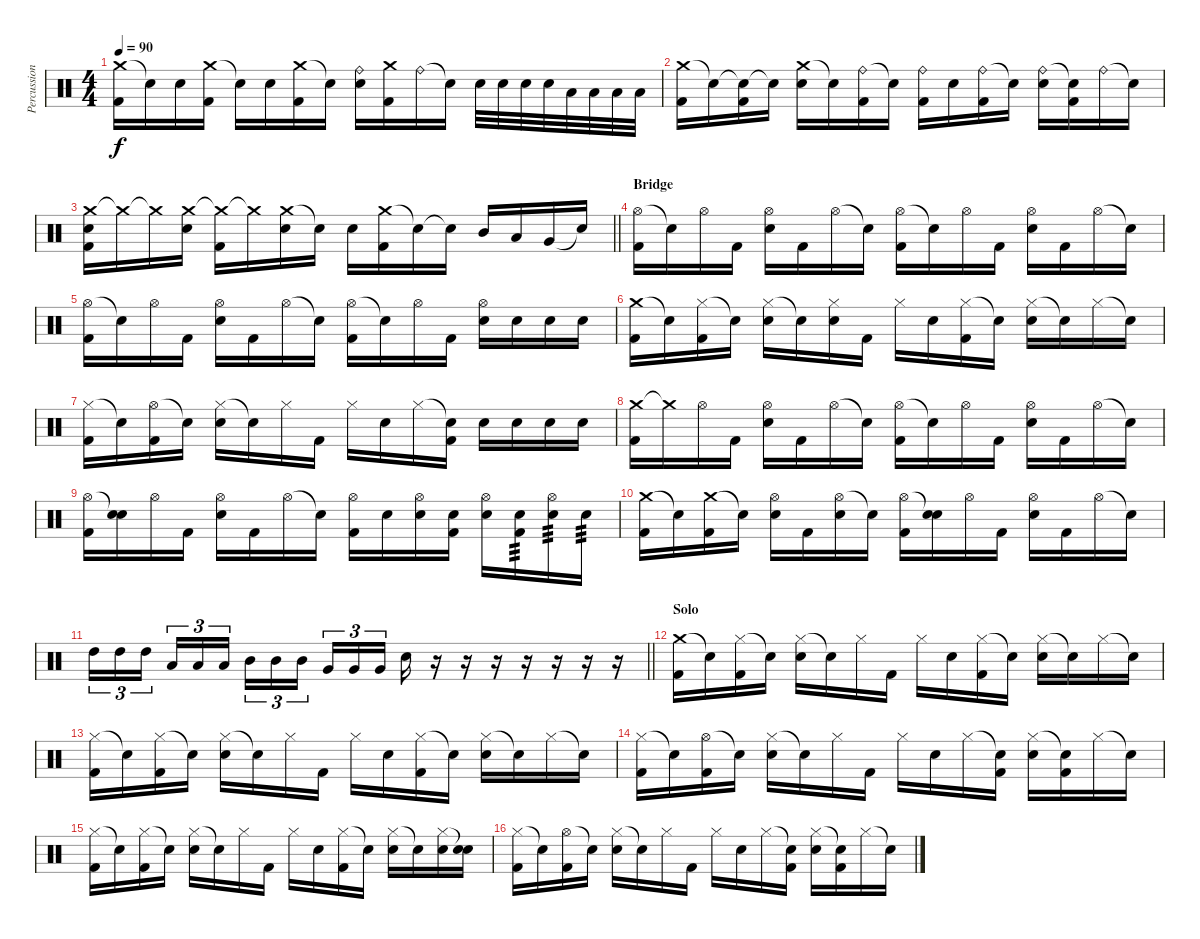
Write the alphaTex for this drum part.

\track ("Percussion" "Percussion") {instrument percussion}
\staff {score}
\articulation defaults
\ts (4 4)
\tempo 90
\clef neutral
\ks c
("Crash medium (hit)" "Kick (hit) 2").16{dy f} "Snare (hit)"{t}.16 "Snare (hit) 2".16 ("Crash medium (hit)" "Kick (hit) 2").16 "Snare (hit)"{t}.16 "Snare (hit) 2".16 ("Crash medium (hit)" "Kick (hit) 2").16 "Snare (hit)"{t}.16 ("Ride (bell)" "Snare (hit) 2").16 ("Crash medium (hit)" "Kick (hit) 2").16 "Ride (bell)".16 "Snare (hit)"{t}.16 "Snare (hit) 2".32 "Snare (hit) 2".32 "Snare (hit) 2".32 "Snare (hit) 2".32 "Low Tom (hit)".32 "Low Tom (hit)".32 "Low Tom (hit)".32 "Low Tom (hit)".32 |
("Crash medium (hit)" "Kick (hit) 2").16 "Snare (hit)"{t}.16 ("Snare (hit)"{t} "Kick (hit) 2").16 "Snare (hit)"{t}.16 ("Crash medium (hit)" "Snare (hit) 2").16 "Snare (hit)"{t}.16 ("Ride (bell)" "Kick (hit) 2").16 "Snare (hit)"{t}.16 ("Ride (bell)" "Kick (hit) 2").16 "Snare (hit) 2".16 ("Ride (bell)" "Kick (hit) 2").16 "Snare (hit)"{t}.16 ("Ride (bell)" "Snare (hit) 2").16 ("Snare (hit)"{t} "Kick (hit) 2").16 "Ride (bell)".16 "Snare (hit)"{t}.16 |
\barLineRight lightlight
("Crash medium (hit)" "Snare (hit) 2" "Kick (hit) 2").16 "Crash medium (hit)"{t}.16 "Crash medium (hit)"{t}.16 ("Crash medium (hit)" "Snare (hit) 2").16 ("Crash medium (hit)"{t} "Kick (hit) 2").16 "Crash medium (hit)"{t}.16 ("Crash medium (hit)" "Snare (hit) 2").16 "Snare (hit)"{t}.16 "Snare (hit) 2".16 ("Crash medium (hit)" "Kick (hit) 2").16 "Snare (hit)"{t}.16 "Snare (hit)"{t}.16 "Mid Tom (hit)".16 "Low Tom (hit)".16 "Very Low Tom (hit)".16 "Snare (hit)"{t}.16 |
\section ("" "Bridge")
("Hi-Hat (open)" "Kick (hit) 2").16 "Snare (hit)"{t}.16 "Hi-Hat (open)".16 "Kick (hit) 2".16 ("Hi-Hat (open)" "Snare (hit) 2").16 "Kick (hit) 2".16 "Hi-Hat (open)".16 "Snare (hit)"{t}.16 ("Hi-Hat (open)" "Kick (hit) 2").16 "Snare (hit)"{t}.16 "Hi-Hat (open)".16 "Kick (hit) 2".16 ("Hi-Hat (open)" "Snare (hit) 2").16 "Kick (hit) 2".16 "Hi-Hat (open)".16 "Snare (hit)"{t}.16 |
("Hi-Hat (open)" "Kick (hit) 2").16 "Snare (hit)"{t}.16 "Hi-Hat (open)".16 "Kick (hit) 2".16 ("Hi-Hat (open)" "Snare (hit) 2").16 "Kick (hit) 2".16 "Hi-Hat (open)".16 "Snare (hit)"{t}.16 ("Hi-Hat (open)" "Kick (hit) 2").16 "Snare (hit)"{t}.16 "Hi-Hat (open)".16 "Kick (hit) 2".16 ("Hi-Hat (open)" "Snare (hit) 2").16 "Snare (hit) 2".16 "Snare (hit) 2".16 "Snare (hit) 2".16 |
("Crash medium (hit)" "Kick (hit) 2").16 "Snare (hit)"{t}.16 ("Hi-Hat (closed)" "Kick (hit) 2").16 "Snare (hit)"{t}.16 ("Hi-Hat (closed)" "Snare (hit) 2").16 "Snare (hit)"{t}.16 ("Hi-Hat (closed)" "Snare (hit) 2").16 "Kick (hit) 2".16 "Hi-Hat (closed)".16 "Snare (hit) 2".16 ("Hi-Hat (closed)" "Kick (hit) 2").16 "Snare (hit)"{t}.16 ("Hi-Hat (closed)" "Snare (hit) 2").16 "Snare (hit)"{t}.16 "Hi-Hat (closed)".16 "Snare (hit)"{t}.16 |
("Hi-Hat (closed)" "Kick (hit) 2").16 "Snare (hit)"{t}.16 ("Hi-Hat (open)" "Kick (hit) 2").16 "Snare (hit)"{t}.16 ("Hi-Hat (closed)" "Snare (hit) 2").16 "Snare (hit)"{t}.16 "Hi-Hat (closed)".16 "Kick (hit) 2".16 "Hi-Hat (closed)".16 "Snare (hit) 2".16 "Hi-Hat (closed)".16 ("Snare (hit)"{t} "Kick (hit) 2").16 "Snare (hit) 2".16 "Snare (hit) 2".16 "Snare (hit) 2".16 "Snare (hit) 2".16 |
("Crash medium (hit)" "Kick (hit) 2").16 "Crash medium (hit)"{t}.16 "Hi-Hat (open)".16 "Kick (hit) 2".16 ("Hi-Hat (open)" "Snare (hit) 2").16 "Kick (hit) 2".16 "Hi-Hat (open)".16 "Snare (hit)"{t}.16 ("Hi-Hat (open)" "Kick (hit) 2").16 "Snare (hit)"{t}.16 "Hi-Hat (open)".16 "Kick (hit) 2".16 ("Hi-Hat (open)" "Snare (hit) 2").16 "Kick (hit) 2".16 "Hi-Hat (open)".16 "Snare (hit)"{t}.16 |
("Hi-Hat (open)" "Kick (hit) 2").16 ("Snare (hit)"{t} "Snare (hit) 2").16 "Hi-Hat (open)".16 "Kick (hit) 2".16 ("Hi-Hat (open)" "Snare (hit) 2").16 "Kick (hit) 2".16 "Hi-Hat (open)".16 "Snare (hit)"{t}.16 ("Hi-Hat (open)" "Kick (hit) 2").16 "Snare (hit) 2".16 ("Hi-Hat (open)" "Snare (hit) 2").16 ("Snare (hit) 2" "Kick (hit) 2").16 ("Hi-Hat (open)" "Snare (hit) 2").16 ("Snare (hit) 2" "Kick (hit) 2").16{tp 3} ("Hi-Hat (open)" "Snare (hit) 2").16{tp 3} "Snare (hit) 2".16{tp 3} |
("Crash medium (hit)" "Kick (hit) 2").16 "Snare (hit)"{t}.16 ("Crash medium (hit)" "Kick (hit) 2").16 "Snare (hit)"{t}.16 ("Hi-Hat (open)" "Snare (hit) 2").16 "Kick (hit) 2".16 ("Hi-Hat (open)" "Snare (hit) 2").16 "Snare (hit)"{t}.16 ("Hi-Hat (open)" "Kick (hit) 2").16 ("Snare (hit)"{t} "Snare (hit) 2").16 "Hi-Hat (open)".16 "Kick (hit) 2".16 ("Hi-Hat (open)" "Snare (hit) 2").16 "Kick (hit) 2".16 "Hi-Hat (open)".16 "Snare (hit)"{t}.16 |
\barLineRight lightlight "High Tom (hit)".16{tu (3 2)} "High Tom (hit)".16{tu (3 2)} "High Tom (hit)".16{tu (3 2) beam splitsecondary} "Low Tom (hit)".16{tu (3 2)} "Low Tom (hit)".16{tu (3 2)} "Low Tom (hit)".16{tu (3 2)} "Mid Tom (hit)".16{tu (3 2)} "Mid Tom (hit)".16{tu (3 2)} "Mid Tom (hit)".16{tu (3 2) beam splitsecondary} "Very Low Tom (hit)".16{tu (3 2)} "Very Low Tom (hit)".16{tu (3 2)} "Very Low Tom (hit)".16{tu (3 2)} "Snare (hit) 2".16
r.16 r.16 r.16 r.16 r.16 r.16 r.16 |
\section ("" "Solo")
("Crash medium (hit)" "Kick (hit) 2").16 "Snare (hit)"{t}.16 ("Hi-Hat (closed)" "Kick (hit) 2").16 "Snare (hit)"{t}.16 ("Hi-Hat (closed)" "Snare (hit) 2").16 "Snare (hit)"{t}.16 "Hi-Hat (closed)".16 "Kick (hit) 2".16 "Hi-Hat (closed)".16 "Snare (hit) 2".16 ("Hi-Hat (closed)" "Kick (hit) 2").16 "Snare (hit)"{t}.16 ("Hi-Hat (closed)" "Snare (hit) 2").16 "Snare (hit)"{t}.16 "Hi-Hat (closed)".16 "Snare (hit)"{t}.16 |
("Hi-Hat (closed)" "Kick (hit) 2").16 "Snare (hit)"{t}.16 ("Hi-Hat (closed)" "Kick (hit) 2").16 "Snare (hit)"{t}.16 ("Hi-Hat (closed)" "Snare (hit) 2").16 "Snare (hit)"{t}.16 "Hi-Hat (closed)".16 "Kick (hit) 2".16 "Hi-Hat (closed)".16 "Snare (hit) 2".16 ("Hi-Hat (closed)" "Kick (hit) 2").16 "Snare (hit)"{t}.16 ("Hi-Hat (closed)" "Snare (hit) 2").16 "Snare (hit)"{t}.16 "Hi-Hat (closed)".16 "Snare (hit)"{t}.16 |
("Hi-Hat (closed)" "Kick (hit) 2").16 "Snare (hit)"{t}.16 ("Hi-Hat (open)" "Kick (hit) 2").16 "Snare (hit)"{t}.16 ("Hi-Hat (closed)" "Snare (hit) 2").16 "Snare (hit)"{t}.16 "Hi-Hat (closed)".16 "Kick (hit) 2".16 "Hi-Hat (closed)".16 "Snare (hit) 2".16 "Hi-Hat (closed)".16 ("Snare (hit)"{t} "Kick (hit) 2").16 ("Hi-Hat (closed)" "Snare (hit) 2").16 ("Snare (hit)"{t} "Kick (hit) 2").16 "Hi-Hat (closed)".16 "Snare (hit)"{t}.16 |
("Hi-Hat (closed)" "Kick (hit) 2").16 "Snare (hit)"{t}.16 ("Hi-Hat (closed)" "Kick (hit) 2").16 "Snare (hit)"{t}.16 ("Hi-Hat (closed)" "Snare (hit) 2").16 "Snare (hit)"{t}.16 "Hi-Hat (closed)".16 "Kick (hit) 2".16 "Hi-Hat (closed)".16 "Snare (hit) 2".16 ("Hi-Hat (closed)" "Kick (hit) 2").16 "Snare (hit)"{t}.16 ("Hi-Hat (closed)" "Snare (hit) 2").16 "Snare (hit)"{t}.16 ("Hi-Hat (closed)" "Snare (hit) 2").16 ("Snare (hit)"{t} "Snare (hit) 2").16 |
("Hi-Hat (closed)" "Kick (hit) 2").16 "Snare (hit)"{t}.16 ("Hi-Hat (open)" "Kick (hit) 2").16 "Snare (hit)"{t}.16 ("Hi-Hat (closed)" "Snare (hit) 2").16 "Snare (hit)"{t}.16 "Hi-Hat (closed)".16 "Kick (hit) 2".16 "Hi-Hat (closed)".16 "Snare (hit) 2".16 "Hi-Hat (closed)".16 ("Snare (hit)"{t} "Kick (hit) 2").16 ("Hi-Hat (closed)" "Snare (hit) 2").16 ("Snare (hit)"{t} "Kick (hit) 2").16 "Hi-Hat (closed)".16 "Snare (hit)"{t}.16
